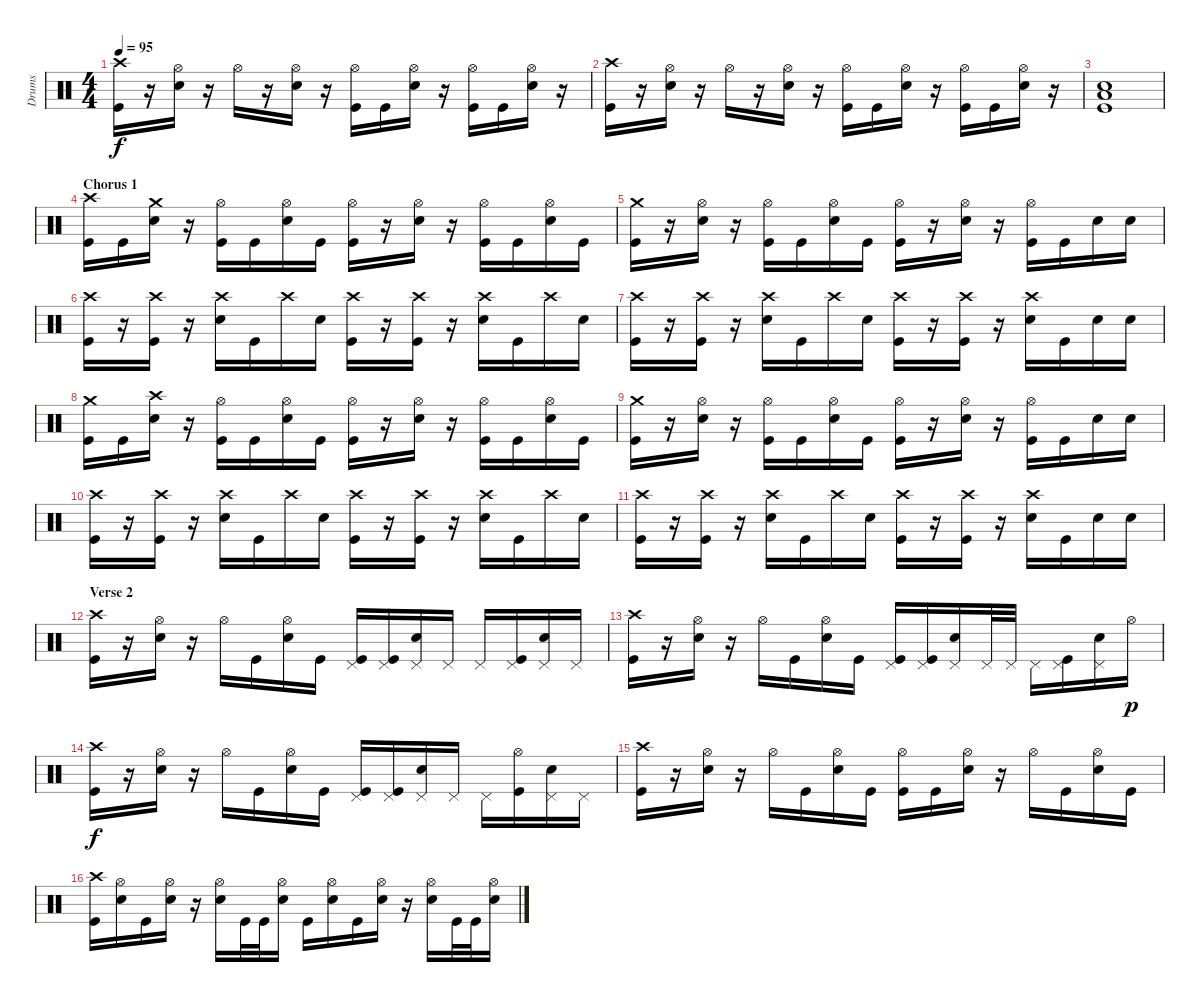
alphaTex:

\track ("Drums" "Drums") {instrument percussion}
\staff {score}
\articulation defaults
\ts (4 4)
\tempo 95
\clef neutral
\ks c
("Crash high (hit)" "Kick (hit)").16{dy f} r.16 ("Hi-Hat (open)" "Electric Snare (hit)").16 r.16 "Hi-Hat (open)".16 r.16 ("Hi-Hat (open)" "Electric Snare (hit)").16 r.16 ("Hi-Hat (open)" "Kick (hit)").16 "Kick (hit)".16 ("Hi-Hat (open)" "Electric Snare (hit)").16 r.16 ("Hi-Hat (open)" "Kick (hit)").16 "Kick (hit)".16 ("Hi-Hat (open)" "Electric Snare (hit)").16 r.16 |
("Crash high (hit)" "Kick (hit)").16 r.16 ("Hi-Hat (open)" "Electric Snare (hit)").16 r.16 "Hi-Hat (open)".16 r.16 ("Hi-Hat (open)" "Electric Snare (hit)").16 r.16 ("Hi-Hat (open)" "Kick (hit)").16 "Kick (hit)".16 ("Hi-Hat (open)" "Electric Snare (hit)").16 r.16 ("Hi-Hat (open)" "Kick (hit)").16 "Kick (hit)".16 ("Hi-Hat (open)" "Electric Snare (hit)").16 r.16 |
("Kick (hit)" "Low Floor Tom (hit)" "Electric Snare (hit)").1 |
\section ("" "Chorus 1")
("Crash high (hit)" "Kick (hit)").16 "Kick (hit)".16 ("Crash medium (hit)" "Electric Snare (hit)").16 r.16 ("Hi-Hat (open)" "Kick (hit)").16 "Kick (hit)".16 ("Hi-Hat (open)" "Electric Snare (hit)").16 "Kick (hit)".16 ("Hi-Hat (open)" "Kick (hit)").16 r.16 ("Hi-Hat (open)" "Electric Snare (hit)").16 r.16 ("Hi-Hat (open)" "Kick (hit)").16 "Kick (hit)".16 ("Hi-Hat (open)" "Electric Snare (hit)").16 "Kick (hit)".16 |
("Crash medium (hit)" "Kick (hit)").16 r.16 ("Hi-Hat (open)" "Electric Snare (hit)").16 r.16 ("Hi-Hat (open)" "Kick (hit)").16 "Kick (hit)".16 ("Hi-Hat (open)" "Electric Snare (hit)").16 "Kick (hit)".16 ("Hi-Hat (open)" "Kick (hit)").16 r.16 ("Hi-Hat (open)" "Electric Snare (hit)").16 r.16 ("Hi-Hat (open)" "Kick (hit)").16 "Kick (hit)".16 "Electric Snare (hit)".16 "Electric Snare (hit)".16 |
("Crash high (hit)" "Kick (hit)").16 r.16 ("Crash high (hit)" "Kick (hit)").16 r.16 ("Crash high (hit)" "Electric Snare (hit)").16 "Kick (hit)".16 "Crash high (hit)".16 "Electric Snare (hit)".16 ("Crash high (hit)" "Kick (hit)").16 r.16 ("Crash high (hit)" "Kick (hit)").16 r.16 ("Crash high (hit)" "Electric Snare (hit)").16 "Kick (hit)".16 "Crash high (hit)".16 "Electric Snare (hit)".16 |
("Crash high (hit)" "Kick (hit)").16 r.16 ("Crash high (hit)" "Kick (hit)").16 r.16 ("Crash high (hit)" "Electric Snare (hit)").16 "Kick (hit)".16 "Crash high (hit)".16 "Electric Snare (hit)".16 ("Crash high (hit)" "Kick (hit)").16 r.16 ("Crash high (hit)" "Kick (hit)").16 r.16 ("Crash high (hit)" "Electric Snare (hit)").16 "Kick (hit)".16 "Electric Snare (hit)".16 "Electric Snare (hit)".16 |
("Crash medium (hit)" "Kick (hit)").16 "Kick (hit)".16 ("Crash high (hit)" "Electric Snare (hit)").16 r.16 ("Hi-Hat (open)" "Kick (hit)").16 "Kick (hit)".16 ("Hi-Hat (open)" "Electric Snare (hit)").16 "Kick (hit)".16 ("Hi-Hat (open)" "Kick (hit)").16 r.16 ("Hi-Hat (open)" "Electric Snare (hit)").16 r.16 ("Hi-Hat (open)" "Kick (hit)").16 "Kick (hit)".16 ("Hi-Hat (open)" "Electric Snare (hit)").16 "Kick (hit)".16 |
("Crash medium (hit)" "Kick (hit)").16 r.16 ("Hi-Hat (open)" "Electric Snare (hit)").16 r.16 ("Hi-Hat (open)" "Kick (hit)").16 "Kick (hit)".16 ("Hi-Hat (open)" "Electric Snare (hit)").16 "Kick (hit)".16 ("Hi-Hat (open)" "Kick (hit)").16 r.16 ("Hi-Hat (open)" "Electric Snare (hit)").16 r.16 ("Hi-Hat (open)" "Kick (hit)").16 "Kick (hit)".16 "Electric Snare (hit)".16 "Electric Snare (hit)".16 |
("Crash high (hit)" "Kick (hit)").16 r.16 ("Crash high (hit)" "Kick (hit)").16 r.16 ("Crash high (hit)" "Electric Snare (hit)").16 "Kick (hit)".16 "Crash high (hit)".16 "Electric Snare (hit)".16 ("Crash high (hit)" "Kick (hit)").16 r.16 ("Crash high (hit)" "Kick (hit)").16 r.16 ("Crash high (hit)" "Electric Snare (hit)").16 "Kick (hit)".16 "Crash high (hit)".16 "Electric Snare (hit)".16 |
("Crash high (hit)" "Kick (hit)").16 r.16 ("Crash high (hit)" "Kick (hit)").16 r.16 ("Crash high (hit)" "Electric Snare (hit)").16 "Kick (hit)".16 "Crash high (hit)".16 "Electric Snare (hit)".16 ("Crash high (hit)" "Kick (hit)").16 r.16 ("Crash high (hit)" "Kick (hit)").16 r.16 ("Crash high (hit)" "Electric Snare (hit)").16 "Kick (hit)".16 "Electric Snare (hit)".16 "Electric Snare (hit)".16 |
\section ("" "Verse 2")
("Crash high (hit)" "Kick (hit)").16 r.16 ("Hi-Hat (open)" "Electric Snare (hit)").16 r.16 "Hi-Hat (open)".16 "Kick (hit)".16 ("Hi-Hat (open)" "Electric Snare (hit)").16 "Kick (hit)".16 ("Pedal Hi-Hat (hit)" "Kick (hit)").16 ("Pedal Hi-Hat (hit)" "Kick (hit)").16 ("Pedal Hi-Hat (hit)" "Electric Snare (hit)").16 "Pedal Hi-Hat (hit)".16 "Pedal Hi-Hat (hit)".16 ("Pedal Hi-Hat (hit)" "Kick (hit)").16 ("Pedal Hi-Hat (hit)" "Electric Snare (hit)").16 "Pedal Hi-Hat (hit)".16 |
("Crash high (hit)" "Kick (hit)").16 r.16 ("Hi-Hat (open)" "Electric Snare (hit)").16 r.16 "Hi-Hat (open)".16 "Kick (hit)".16 ("Hi-Hat (open)" "Electric Snare (hit)").16 "Kick (hit)".16 ("Pedal Hi-Hat (hit)" "Kick (hit)").16 ("Pedal Hi-Hat (hit)" "Kick (hit)").16 ("Pedal Hi-Hat (hit)" "Electric Snare (hit)").16 "Pedal Hi-Hat (hit)".32 "Pedal Hi-Hat (hit)".32 "Pedal Hi-Hat (hit)".16 ("Pedal Hi-Hat (hit)" "Kick (hit)").16 ("Pedal Hi-Hat (hit)" "Electric Snare (hit)").16 "Hi-Hat (open)".16{dy p} |
("Crash high (hit)" "Kick (hit)").16{dy f} r.16 ("Hi-Hat (open)" "Electric Snare (hit)").16 r.16 "Hi-Hat (open)".16 "Kick (hit)".16 ("Hi-Hat (open)" "Electric Snare (hit)").16 "Kick (hit)".16 ("Pedal Hi-Hat (hit)" "Kick (hit)").16 ("Pedal Hi-Hat (hit)" "Kick (hit)").16 ("Pedal Hi-Hat (hit)" "Electric Snare (hit)").16 "Pedal Hi-Hat (hit)".16 "Pedal Hi-Hat (hit)".16 ("Hi-Hat (open)" "Kick (hit)").16 ("Pedal Hi-Hat (hit)" "Electric Snare (hit)").16 "Pedal Hi-Hat (hit)".16 |
("Crash high (hit)" "Kick (hit)").16 r.16 ("Hi-Hat (open)" "Electric Snare (hit)").16 r.16 "Hi-Hat (open)".16 "Kick (hit)".16 ("Hi-Hat (open)" "Electric Snare (hit)").16 "Kick (hit)".16 ("Hi-Hat (open)" "Kick (hit)").16 "Kick (hit)".16 ("Hi-Hat (open)" "Electric Snare (hit)").16 r.16 "Hi-Hat (open)".16 "Kick (hit)".16 ("Hi-Hat (open)" "Electric Snare (hit)").16 "Kick (hit)".16 |
("Crash high (hit)" "Kick (hit)").16 ("Hi-Hat (open)" "Electric Snare (hit)").16 "Kick (hit)".16 ("Hi-Hat (open)" "Electric Snare (hit)").16 r.16 ("Hi-Hat (open)" "Electric Snare (hit)").16 "Kick (hit)".32 "Kick (hit)".32 ("Hi-Hat (open)" "Electric Snare (hit)").16 "Kick (hit)".16 ("Hi-Hat (open)" "Electric Snare (hit)").16 "Kick (hit)".16 ("Hi-Hat (open)" "Electric Snare (hit)").16 r.16 ("Hi-Hat (open)" "Electric Snare (hit)").16 "Kick (hit)".32 "Kick (hit)".32 ("Hi-Hat (open)" "Electric Snare (hit)").16
